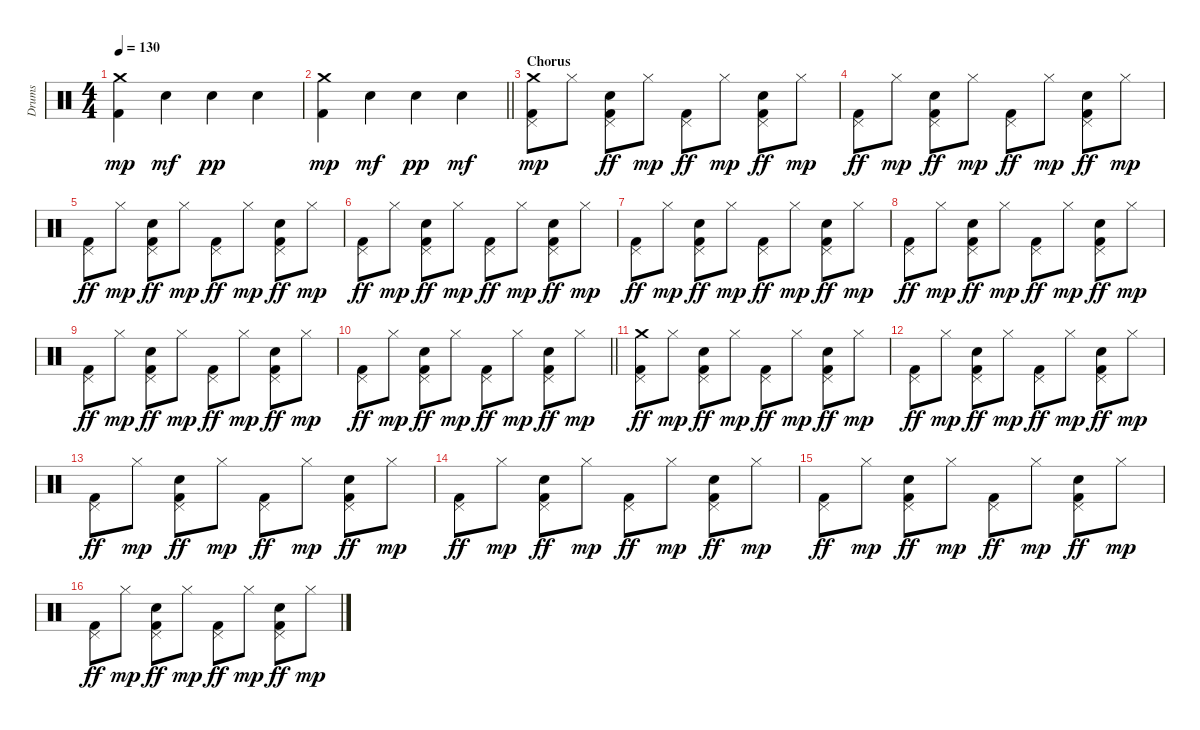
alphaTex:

\track ("Drums" "Drums") {instrument percussion}
\staff {score}
\articulation defaults
\ts (4 4)
\tempo 130
\clef neutral
\ks c
("Kick (hit) 2" "Crash medium (hit)").4{dy mp} "Hand Clap (hit)".4{dy mf} "Hand Clap (hit)".4{dy pp} "Hand Clap (hit)".4 |
\barLineRight lightlight
("Kick (hit) 2" "Crash medium (hit)").4{dy mp} "Hand Clap (hit)".4{dy mf} "Hand Clap (hit)".4{dy pp} "Hand Clap (hit)".4{dy mf} |
\section ("" "Chorus")
("Pedal Hi-Hat (hit)" "Kick (hit) 2" "Crash medium (hit)").8{dy mp} "Hi-Hat (closed)".8 ("Hand Clap (hit)" "Pedal Hi-Hat (hit)" "Kick (hit) 2").8{dy ff} "Hi-Hat (closed)".8{dy mp} ("Pedal Hi-Hat (hit)" "Kick (hit) 2").8{dy ff} "Hi-Hat (closed)".8{dy mp} ("Hand Clap (hit)" "Pedal Hi-Hat (hit)" "Kick (hit) 2").8{dy ff} "Hi-Hat (closed)".8{dy mp} |
("Pedal Hi-Hat (hit)" "Kick (hit) 2").8{dy ff} "Hi-Hat (closed)".8{dy mp} ("Hand Clap (hit)" "Pedal Hi-Hat (hit)" "Kick (hit) 2").8{dy ff} "Hi-Hat (closed)".8{dy mp} ("Pedal Hi-Hat (hit)" "Kick (hit) 2").8{dy ff} "Hi-Hat (closed)".8{dy mp} ("Hand Clap (hit)" "Pedal Hi-Hat (hit)" "Kick (hit) 2").8{dy ff} "Hi-Hat (closed)".8{dy mp} |
("Pedal Hi-Hat (hit)" "Kick (hit) 2").8{dy ff} "Hi-Hat (closed)".8{dy mp} ("Hand Clap (hit)" "Pedal Hi-Hat (hit)" "Kick (hit) 2").8{dy ff} "Hi-Hat (closed)".8{dy mp} ("Pedal Hi-Hat (hit)" "Kick (hit) 2").8{dy ff} "Hi-Hat (closed)".8{dy mp} ("Hand Clap (hit)" "Pedal Hi-Hat (hit)" "Kick (hit) 2").8{dy ff} "Hi-Hat (closed)".8{dy mp} |
("Pedal Hi-Hat (hit)" "Kick (hit) 2").8{dy ff} "Hi-Hat (closed)".8{dy mp} ("Hand Clap (hit)" "Pedal Hi-Hat (hit)" "Kick (hit) 2").8{dy ff} "Hi-Hat (closed)".8{dy mp} ("Pedal Hi-Hat (hit)" "Kick (hit) 2").8{dy ff} "Hi-Hat (closed)".8{dy mp} ("Hand Clap (hit)" "Pedal Hi-Hat (hit)" "Kick (hit) 2").8{dy ff} "Hi-Hat (closed)".8{dy mp} |
("Pedal Hi-Hat (hit)" "Kick (hit) 2").8{dy ff} "Hi-Hat (closed)".8{dy mp} ("Hand Clap (hit)" "Pedal Hi-Hat (hit)" "Kick (hit) 2").8{dy ff} "Hi-Hat (closed)".8{dy mp} ("Pedal Hi-Hat (hit)" "Kick (hit) 2").8{dy ff} "Hi-Hat (closed)".8{dy mp} ("Hand Clap (hit)" "Pedal Hi-Hat (hit)" "Kick (hit) 2").8{dy ff} "Hi-Hat (closed)".8{dy mp} |
("Pedal Hi-Hat (hit)" "Kick (hit) 2").8{dy ff} "Hi-Hat (closed)".8{dy mp} ("Hand Clap (hit)" "Pedal Hi-Hat (hit)" "Kick (hit) 2").8{dy ff} "Hi-Hat (closed)".8{dy mp} ("Pedal Hi-Hat (hit)" "Kick (hit) 2").8{dy ff} "Hi-Hat (closed)".8{dy mp} ("Hand Clap (hit)" "Pedal Hi-Hat (hit)" "Kick (hit) 2").8{dy ff} "Hi-Hat (closed)".8{dy mp} |
("Pedal Hi-Hat (hit)" "Kick (hit) 2").8{dy ff} "Hi-Hat (closed)".8{dy mp} ("Hand Clap (hit)" "Pedal Hi-Hat (hit)" "Kick (hit) 2").8{dy ff} "Hi-Hat (closed)".8{dy mp} ("Pedal Hi-Hat (hit)" "Kick (hit) 2").8{dy ff} "Hi-Hat (closed)".8{dy mp} ("Hand Clap (hit)" "Pedal Hi-Hat (hit)" "Kick (hit) 2").8{dy ff} "Hi-Hat (closed)".8{dy mp} |
\barLineRight lightlight
("Pedal Hi-Hat (hit)" "Kick (hit) 2").8{dy ff} "Hi-Hat (closed)".8{dy mp} ("Hand Clap (hit)" "Pedal Hi-Hat (hit)" "Kick (hit) 2").8{dy ff} "Hi-Hat (closed)".8{dy mp} ("Pedal Hi-Hat (hit)" "Kick (hit) 2").8{dy ff} "Hi-Hat (closed)".8{dy mp} ("Hand Clap (hit)" "Pedal Hi-Hat (hit)" "Kick (hit) 2").8{dy ff} "Hi-Hat (closed)".8{dy mp} |
("Crash medium (hit)" "Pedal Hi-Hat (hit)" "Kick (hit) 2").8{dy ff} "Hi-Hat (closed)".8{dy mp} ("Hand Clap (hit)" "Pedal Hi-Hat (hit)" "Kick (hit) 2").8{dy ff} "Hi-Hat (closed)".8{dy mp} ("Pedal Hi-Hat (hit)" "Kick (hit) 2").8{dy ff} "Hi-Hat (closed)".8{dy mp} ("Hand Clap (hit)" "Pedal Hi-Hat (hit)" "Kick (hit) 2").8{dy ff} "Hi-Hat (closed)".8{dy mp} |
("Pedal Hi-Hat (hit)" "Kick (hit) 2").8{dy ff} "Hi-Hat (closed)".8{dy mp} ("Hand Clap (hit)" "Pedal Hi-Hat (hit)" "Kick (hit) 2").8{dy ff} "Hi-Hat (closed)".8{dy mp} ("Pedal Hi-Hat (hit)" "Kick (hit) 2").8{dy ff} "Hi-Hat (closed)".8{dy mp} ("Hand Clap (hit)" "Pedal Hi-Hat (hit)" "Kick (hit) 2").8{dy ff} "Hi-Hat (closed)".8{dy mp} |
("Pedal Hi-Hat (hit)" "Kick (hit) 2").8{dy ff} "Hi-Hat (closed)".8{dy mp} ("Hand Clap (hit)" "Pedal Hi-Hat (hit)" "Kick (hit) 2").8{dy ff} "Hi-Hat (closed)".8{dy mp} ("Pedal Hi-Hat (hit)" "Kick (hit) 2").8{dy ff} "Hi-Hat (closed)".8{dy mp} ("Hand Clap (hit)" "Pedal Hi-Hat (hit)" "Kick (hit) 2").8{dy ff} "Hi-Hat (closed)".8{dy mp} |
("Pedal Hi-Hat (hit)" "Kick (hit) 2").8{dy ff} "Hi-Hat (closed)".8{dy mp} ("Hand Clap (hit)" "Pedal Hi-Hat (hit)" "Kick (hit) 2").8{dy ff} "Hi-Hat (closed)".8{dy mp} ("Pedal Hi-Hat (hit)" "Kick (hit) 2").8{dy ff} "Hi-Hat (closed)".8{dy mp} ("Hand Clap (hit)" "Pedal Hi-Hat (hit)" "Kick (hit) 2").8{dy ff} "Hi-Hat (closed)".8{dy mp} |
("Pedal Hi-Hat (hit)" "Kick (hit) 2").8{dy ff} "Hi-Hat (closed)".8{dy mp} ("Hand Clap (hit)" "Pedal Hi-Hat (hit)" "Kick (hit) 2").8{dy ff} "Hi-Hat (closed)".8{dy mp} ("Pedal Hi-Hat (hit)" "Kick (hit) 2").8{dy ff} "Hi-Hat (closed)".8{dy mp} ("Hand Clap (hit)" "Pedal Hi-Hat (hit)" "Kick (hit) 2").8{dy ff} "Hi-Hat (closed)".8{dy mp} |
("Pedal Hi-Hat (hit)" "Kick (hit) 2").8{dy ff} "Hi-Hat (closed)".8{dy mp} ("Hand Clap (hit)" "Pedal Hi-Hat (hit)" "Kick (hit) 2").8{dy ff} "Hi-Hat (closed)".8{dy mp} ("Pedal Hi-Hat (hit)" "Kick (hit) 2").8{dy ff} "Hi-Hat (closed)".8{dy mp} ("Hand Clap (hit)" "Pedal Hi-Hat (hit)" "Kick (hit) 2").8{dy ff} "Hi-Hat (closed)".8{dy mp}
